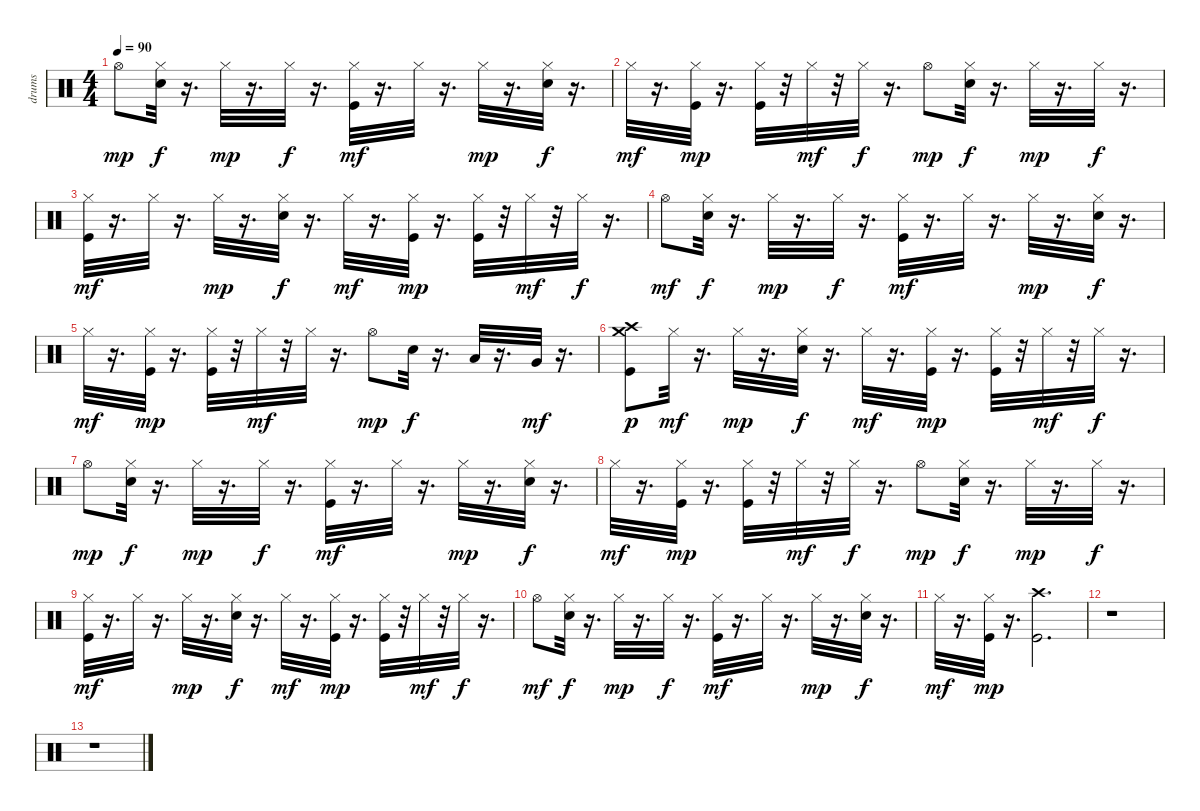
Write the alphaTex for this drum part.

\track ("drums" "drums") {instrument percussion}
\staff {score}
\articulation defaults
\ts (4 4)
\tempo 90
\clef neutral
\ks c "Hi-Hat (open)".8{dy mp}
("Snare (hit) 2" "Hi-Hat (closed)").32{dy f} r.16{d} "Hi-Hat (closed)".32{dy mp} r.16{d} "Hi-Hat (closed)".32{dy f} r.16{d} ("Kick (hit)" "Hi-Hat (closed)").32{dy mf} r.16{d} "Hi-Hat (closed)".32 r.16{d} "Hi-Hat (closed)".32{dy mp} r.16{d} ("Snare (hit) 2" "Hi-Hat (closed)").32{dy f} r.16{d} |
"Hi-Hat (closed)".32{dy mf} r.16{d} ("Kick (hit)" "Hi-Hat (closed)").32{dy mp} r.16{d} ("Kick (hit)" "Hi-Hat (closed)").32 r.32 "Hi-Hat (closed)".32{dy mf} r.32 "Hi-Hat (closed)".32{dy f} r.16{d} "Hi-Hat (open)".8{dy mp} ("Snare (hit) 2" "Hi-Hat (closed)").32{dy f} r.16{d} "Hi-Hat (closed)".32{dy mp} r.16{d} "Hi-Hat (closed)".32{dy f} r.16{d} |
("Kick (hit)" "Hi-Hat (closed)").32{dy mf} r.16{d} "Hi-Hat (closed)".32 r.16{d} "Hi-Hat (closed)".32{dy mp} r.16{d} ("Snare (hit) 2" "Hi-Hat (closed)").32{dy f} r.16{d} "Hi-Hat (closed)".32{dy mf} r.16{d} ("Kick (hit)" "Hi-Hat (closed)").32{dy mp} r.16{d} ("Kick (hit)" "Hi-Hat (closed)").32 r.32 "Hi-Hat (closed)".32{dy mf} r.32 "Hi-Hat (closed)".32{dy f} r.16{d} |
"Hi-Hat (open)".8{dy mf} ("Snare (hit) 2" "Hi-Hat (closed)").32{dy f} r.16{d} "Hi-Hat (closed)".32{dy mp} r.16{d} "Hi-Hat (closed)".32{dy f} r.16{d} ("Kick (hit)" "Hi-Hat (closed)").32{dy mf} r.16{d} "Hi-Hat (closed)".32 r.16{d} "Hi-Hat (closed)".32{dy mp} r.16{d} ("Snare (hit) 2" "Hi-Hat (closed)").32{dy f} r.16{d} |
"Hi-Hat (closed)".32{dy mf} r.16{d} ("Kick (hit)" "Hi-Hat (closed)").32{dy mp} r.16{d} ("Kick (hit)" "Hi-Hat (closed)").32 r.32 "Hi-Hat (closed)".32{dy mf} r.32 "Hi-Hat (closed)".32 r.16{d} "Hi-Hat (open)".8{dy mp} "Snare (hit) 2".32{dy f} r.16{d} "Low Tom (hit)".32 r.16{d} "Very Low Tom (hit)".32{dy mf} r.16{d} |
("Kick (hit)" "Crash high (hit)" "Crash medium (hit)").8{dy p} "Hi-Hat (closed)".32{dy mf} r.16{d} "Hi-Hat (closed)".32{dy mp} r.16{d} ("Snare (hit) 2" "Hi-Hat (closed)").32{dy f} r.16{d} "Hi-Hat (closed)".32{dy mf} r.16{d} ("Kick (hit)" "Hi-Hat (closed)").32{dy mp} r.16{d} ("Kick (hit)" "Hi-Hat (closed)").32 r.32 "Hi-Hat (closed)".32{dy mf} r.32 "Hi-Hat (closed)".32{dy f} r.16{d} |
"Hi-Hat (open)".8{dy mp} ("Snare (hit) 2" "Hi-Hat (closed)").32{dy f} r.16{d} "Hi-Hat (closed)".32{dy mp} r.16{d} "Hi-Hat (closed)".32{dy f} r.16{d} ("Kick (hit)" "Hi-Hat (closed)").32{dy mf} r.16{d} "Hi-Hat (closed)".32 r.16{d} "Hi-Hat (closed)".32{dy mp} r.16{d} ("Snare (hit) 2" "Hi-Hat (closed)").32{dy f} r.16{d} |
"Hi-Hat (closed)".32{dy mf} r.16{d} ("Kick (hit)" "Hi-Hat (closed)").32{dy mp} r.16{d} ("Kick (hit)" "Hi-Hat (closed)").32 r.32 "Hi-Hat (closed)".32{dy mf} r.32 "Hi-Hat (closed)".32{dy f} r.16{d} "Hi-Hat (open)".8{dy mp} ("Snare (hit) 2" "Hi-Hat (closed)").32{dy f} r.16{d} "Hi-Hat (closed)".32{dy mp} r.16{d} "Hi-Hat (closed)".32{dy f} r.16{d} |
("Kick (hit)" "Hi-Hat (closed)").32{dy mf} r.16{d} "Hi-Hat (closed)".32 r.16{d} "Hi-Hat (closed)".32{dy mp} r.16{d} ("Snare (hit) 2" "Hi-Hat (closed)").32{dy f} r.16{d} "Hi-Hat (closed)".32{dy mf} r.16{d} ("Kick (hit)" "Hi-Hat (closed)").32{dy mp} r.16{d} ("Kick (hit)" "Hi-Hat (closed)").32 r.32 "Hi-Hat (closed)".32{dy mf} r.32 "Hi-Hat (closed)".32{dy f} r.16{d} |
"Hi-Hat (open)".8{dy mf} ("Snare (hit) 2" "Hi-Hat (closed)").32{dy f} r.16{d} "Hi-Hat (closed)".32{dy mp} r.16{d} "Hi-Hat (closed)".32{dy f} r.16{d} ("Kick (hit)" "Hi-Hat (closed)").32{dy mf} r.16{d} "Hi-Hat (closed)".32 r.16{d} "Hi-Hat (closed)".32{dy mp} r.16{d} ("Snare (hit) 2" "Hi-Hat (closed)").32{dy f} r.16{d} |
"Hi-Hat (closed)".32{dy mf} r.16{d} ("Kick (hit)" "Hi-Hat (closed)").32{dy mp} r.16{d} ("Kick (hit)" "Crash high (hit)").2{d} |
r.1 |
r.1
